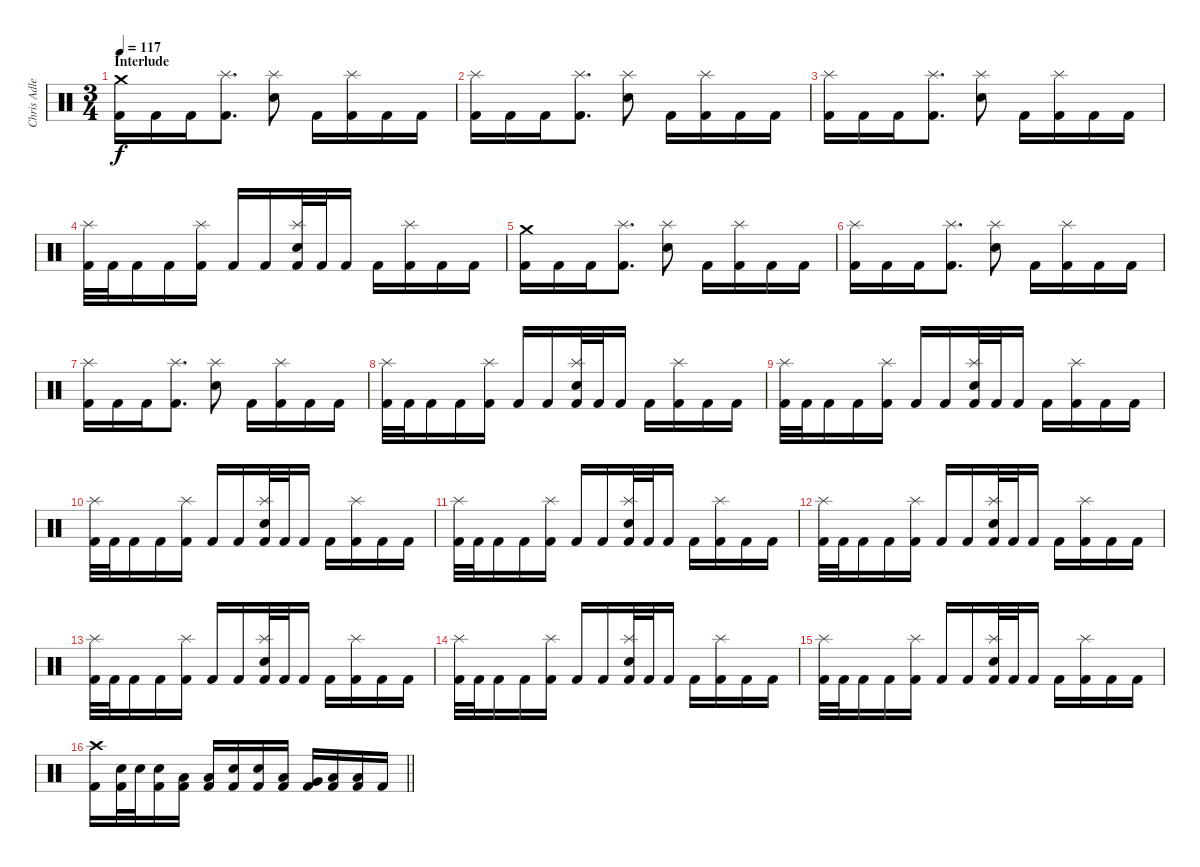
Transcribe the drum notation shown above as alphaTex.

\track ("Chris Adler" "Chris Adle") {instrument percussion}
\staff {score}
\articulation defaults
\ts (3 4)
\section ("" "Interlude")
\tempo 117
\clef neutral
\ks c
("Crash medium (hit)" "Kick (hit) 2").16{dy f} "Kick (hit) 2".16 "Kick (hit) 2".16 ("Splash (hit)" "Kick (hit) 2").8{d} ("Splash (hit)" "Electric Snare (hit)").8 "Kick (hit) 2".16 ("Splash (hit)" "Kick (hit) 2").16 "Kick (hit) 2".16 "Kick (hit) 2".16 |
("Splash (hit)" "Kick (hit) 2").16 "Kick (hit) 2".16 "Kick (hit) 2".16 ("Splash (hit)" "Kick (hit) 2").8{d} ("Splash (hit)" "Electric Snare (hit)").8 "Kick (hit) 2".16 ("Splash (hit)" "Kick (hit) 2").16 "Kick (hit) 2".16 "Kick (hit) 2".16 |
("Splash (hit)" "Kick (hit) 2").16 "Kick (hit) 2".16 "Kick (hit) 2".16 ("Splash (hit)" "Kick (hit) 2").8{d} ("Splash (hit)" "Electric Snare (hit)").8 "Kick (hit) 2".16 ("Splash (hit)" "Kick (hit) 2").16 "Kick (hit) 2".16 "Kick (hit) 2".16 |
("Splash (hit)" "Kick (hit) 2").32 "Kick (hit) 2".32 "Kick (hit) 2".16 "Kick (hit) 2".16 ("Splash (hit)" "Kick (hit) 2").16 "Kick (hit) 2".16 "Kick (hit) 2".16 ("Splash (hit)" "Electric Snare (hit)" "Kick (hit) 2").32 "Kick (hit) 2".32 "Kick (hit) 2".16 "Kick (hit) 2".16 ("Splash (hit)" "Kick (hit) 2").16 "Kick (hit) 2".16 "Kick (hit) 2".16 |
("Crash medium (hit)" "Kick (hit) 2").16 "Kick (hit) 2".16 "Kick (hit) 2".16 ("Splash (hit)" "Kick (hit) 2").8{d} ("Splash (hit)" "Electric Snare (hit)").8 "Kick (hit) 2".16 ("Splash (hit)" "Kick (hit) 2").16 "Kick (hit) 2".16 "Kick (hit) 2".16 |
("Splash (hit)" "Kick (hit) 2").16 "Kick (hit) 2".16 "Kick (hit) 2".16 ("Splash (hit)" "Kick (hit) 2").8{d} ("Splash (hit)" "Electric Snare (hit)").8 "Kick (hit) 2".16 ("Splash (hit)" "Kick (hit) 2").16 "Kick (hit) 2".16 "Kick (hit) 2".16 |
("Splash (hit)" "Kick (hit) 2").16 "Kick (hit) 2".16 "Kick (hit) 2".16 ("Splash (hit)" "Kick (hit) 2").8{d} ("Splash (hit)" "Electric Snare (hit)").8 "Kick (hit) 2".16 ("Splash (hit)" "Kick (hit) 2").16 "Kick (hit) 2".16 "Kick (hit) 2".16 |
("Splash (hit)" "Kick (hit) 2").32 "Kick (hit) 2".32 "Kick (hit) 2".16 "Kick (hit) 2".16 ("Splash (hit)" "Kick (hit) 2").16 "Kick (hit) 2".16 "Kick (hit) 2".16 ("Splash (hit)" "Electric Snare (hit)" "Kick (hit) 2").32 "Kick (hit) 2".32 "Kick (hit) 2".16 "Kick (hit) 2".16 ("Splash (hit)" "Kick (hit) 2").16 "Kick (hit) 2".16 "Kick (hit) 2".16 |
("Splash (hit)" "Kick (hit) 2").32 "Kick (hit) 2".32 "Kick (hit) 2".16 "Kick (hit) 2".16 ("Splash (hit)" "Kick (hit) 2").16 "Kick (hit) 2".16 "Kick (hit) 2".16 ("Splash (hit)" "Electric Snare (hit)" "Kick (hit) 2").32 "Kick (hit) 2".32 "Kick (hit) 2".16 "Kick (hit) 2".16 ("Splash (hit)" "Kick (hit) 2").16 "Kick (hit) 2".16 "Kick (hit) 2".16 |
("Splash (hit)" "Kick (hit) 2").32 "Kick (hit) 2".32 "Kick (hit) 2".16 "Kick (hit) 2".16 ("Splash (hit)" "Kick (hit) 2").16 "Kick (hit) 2".16 "Kick (hit) 2".16 ("Splash (hit)" "Electric Snare (hit)" "Kick (hit) 2").32 "Kick (hit) 2".32 "Kick (hit) 2".16 "Kick (hit) 2".16 ("Splash (hit)" "Kick (hit) 2").16 "Kick (hit) 2".16 "Kick (hit) 2".16 |
("Splash (hit)" "Kick (hit) 2").32 "Kick (hit) 2".32 "Kick (hit) 2".16 "Kick (hit) 2".16 ("Splash (hit)" "Kick (hit) 2").16 "Kick (hit) 2".16 "Kick (hit) 2".16 ("Splash (hit)" "Electric Snare (hit)" "Kick (hit) 2").32 "Kick (hit) 2".32 "Kick (hit) 2".16 "Kick (hit) 2".16 ("Splash (hit)" "Kick (hit) 2").16 "Kick (hit) 2".16 "Kick (hit) 2".16 |
("Splash (hit)" "Kick (hit) 2").32 "Kick (hit) 2".32 "Kick (hit) 2".16 "Kick (hit) 2".16 ("Splash (hit)" "Kick (hit) 2").16 "Kick (hit) 2".16 "Kick (hit) 2".16 ("Splash (hit)" "Electric Snare (hit)" "Kick (hit) 2").32 "Kick (hit) 2".32 "Kick (hit) 2".16 "Kick (hit) 2".16 ("Splash (hit)" "Kick (hit) 2").16 "Kick (hit) 2".16 "Kick (hit) 2".16 |
("Splash (hit)" "Kick (hit) 2").32 "Kick (hit) 2".32 "Kick (hit) 2".16 "Kick (hit) 2".16 ("Splash (hit)" "Kick (hit) 2").16 "Kick (hit) 2".16 "Kick (hit) 2".16 ("Splash (hit)" "Electric Snare (hit)" "Kick (hit) 2").32 "Kick (hit) 2".32 "Kick (hit) 2".16 "Kick (hit) 2".16 ("Splash (hit)" "Kick (hit) 2").16 "Kick (hit) 2".16 "Kick (hit) 2".16 |
("Splash (hit)" "Kick (hit) 2").32 "Kick (hit) 2".32 "Kick (hit) 2".16 "Kick (hit) 2".16 ("Splash (hit)" "Kick (hit) 2").16 "Kick (hit) 2".16 "Kick (hit) 2".16 ("Splash (hit)" "Electric Snare (hit)" "Kick (hit) 2").32 "Kick (hit) 2".32 "Kick (hit) 2".16 "Kick (hit) 2".16 ("Splash (hit)" "Kick (hit) 2").16 "Kick (hit) 2".16 "Kick (hit) 2".16 |
("Splash (hit)" "Kick (hit) 2").32 "Kick (hit) 2".32 "Kick (hit) 2".16 "Kick (hit) 2".16 ("Splash (hit)" "Kick (hit) 2").16 "Kick (hit) 2".16 "Kick (hit) 2".16 ("Splash (hit)" "Electric Snare (hit)" "Kick (hit) 2").32 "Kick (hit) 2".32 "Kick (hit) 2".16 "Kick (hit) 2".16 ("Splash (hit)" "Kick (hit) 2").16 "Kick (hit) 2".16 "Kick (hit) 2".16 |
\barLineRight lightlight
("Crash high (hit)" "Kick (hit) 2").16 ("Electric Snare (hit)" "Kick (hit) 2").32 "Electric Snare (hit)".32 ("Electric Snare (hit)" "Kick (hit) 2").16 ("Low Tom (hit)" "Kick (hit) 2").16 ("Low Tom (hit)" "Kick (hit) 2").16 ("Electric Snare (hit)" "Kick (hit) 2").16 ("Electric Snare (hit)" "Kick (hit) 2").16 ("Low Tom (hit)" "Kick (hit) 2").16 ("Very Low Tom (hit)" "Kick (hit) 2").16 ("Low Floor Tom (hit)" "Kick (hit) 2").16 ("Low Floor Tom (hit)" "Kick (hit) 2").16 "Kick (hit) 2".16
